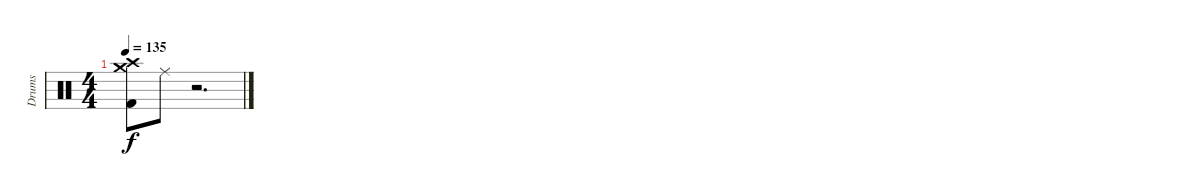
\track ("Drums" "Drums") {instrument percussion}
\staff {score}
\articulation defaults
\ts (4 4)
\tempo 135
\clef neutral
\ks c
("Crash high (hit)" "Crash medium (hit)" "Kick (hit) 2").8{dy f} "Ride (middle)".8 r.2{d}
